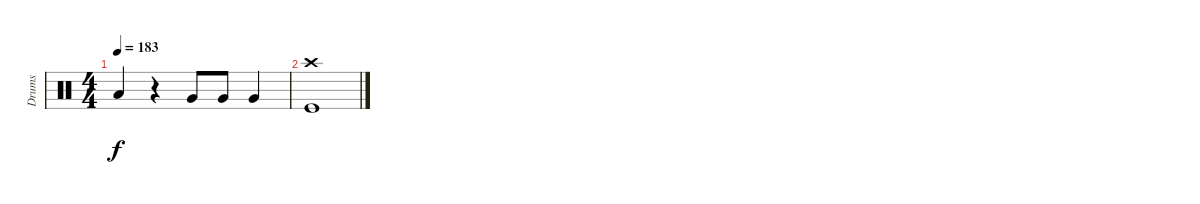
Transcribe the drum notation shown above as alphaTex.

\track ("Drums" "Drums") {instrument percussion}
\staff {score}
\articulation defaults
\ts (4 4)
\tempo 183
\clef neutral
\ks c "Low Tom (hit)".4{dy f}
r.4 "Very Low Tom (hit)".8 "Very Low Tom (hit)".8 "Very Low Tom (hit)".4 |
("Crash high (hit)" "Kick (hit)").1
